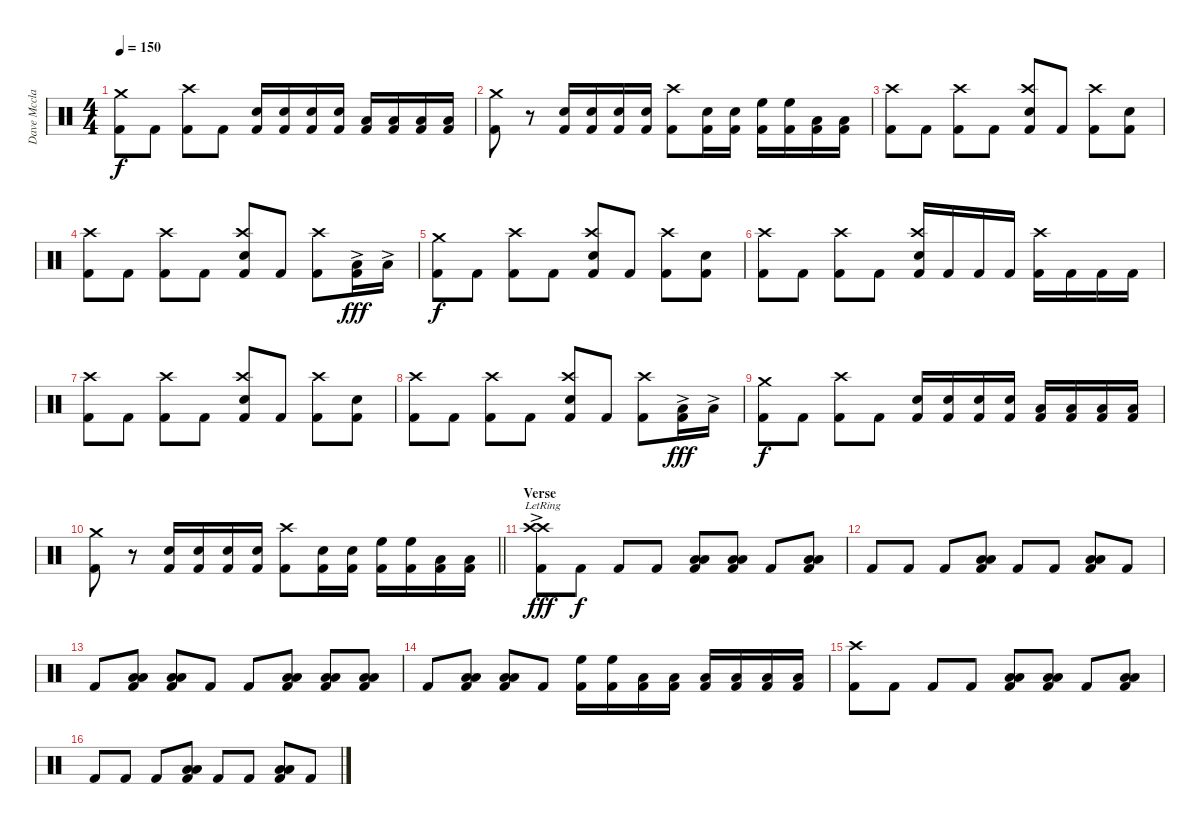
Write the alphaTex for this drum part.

\track ("Dave Mcclain" "Dave Mccla") {instrument percussion}
\staff {score}
\articulation defaults
\ts (4 4)
\tempo 150
\clef neutral
\ks c
("Crash medium (hit)" "Kick (hit) 2").8{dy f} "Kick (hit) 2".8 ("Crash high (hit)" "Kick (hit) 2").8 "Kick (hit) 2".8 ("Electric Snare (hit)" "Kick (hit) 2").16 ("Electric Snare (hit)" "Kick (hit) 2").16 ("Electric Snare (hit)" "Kick (hit) 2").16 ("Electric Snare (hit)" "Kick (hit) 2").16 ("Low Tom (hit)" "Kick (hit) 2").16 ("Low Tom (hit)" "Kick (hit) 2").16 ("Low Floor Tom (hit)" "Kick (hit) 2").16 ("Low Floor Tom (hit)" "Kick (hit) 2").16 |
("Crash medium (hit)" "Kick (hit) 2").8 r.8 ("Electric Snare (hit)" "Kick (hit) 2").16 ("Electric Snare (hit)" "Kick (hit) 2").16 ("Electric Snare (hit)" "Kick (hit) 2").16 ("Electric Snare (hit)" "Kick (hit) 2").16 ("Crash high (hit)" "Kick (hit) 2").8 ("Electric Snare (hit)" "Kick (hit) 2").16 ("Electric Snare (hit)" "Kick (hit) 2").16 ("High Floor Tom (hit)" "Kick (hit) 2").16 ("High Floor Tom (hit)" "Kick (hit) 2").16 ("Low Tom (hit)" "Kick (hit) 2").16 ("Low Floor Tom (hit)" "Kick (hit) 2").16 |
("Crash high (hit)" "Kick (hit) 2").8 "Kick (hit) 2".8 ("Crash high (hit)" "Kick (hit) 2").8 "Kick (hit) 2".8 ("Crash high (hit)" "Electric Snare (hit)" "Kick (hit) 2").8 "Kick (hit) 2".8 ("Crash high (hit)" "Kick (hit) 2").8 ("Electric Snare (hit)" "Kick (hit) 2").8 |
("Crash high (hit)" "Kick (hit) 2").8 "Kick (hit) 2".8 ("Crash high (hit)" "Kick (hit) 2").8 "Kick (hit) 2".8 ("Crash high (hit)" "Electric Snare (hit)" "Kick (hit) 2").8 "Kick (hit) 2".8 ("Crash high (hit)" "Kick (hit) 2").8 ("Low Tom (hit)"{ac} "Kick (hit) 2").16{dy fff} "Low Floor Tom (hit)"{ac}.16 |
("Crash medium (hit)" "Kick (hit) 2").8{dy f} "Kick (hit) 2".8 ("Crash high (hit)" "Kick (hit) 2").8 "Kick (hit) 2".8 ("Crash high (hit)" "Electric Snare (hit)" "Kick (hit) 2").8 "Kick (hit) 2".8 ("Crash high (hit)" "Kick (hit) 2").8 ("Electric Snare (hit)" "Kick (hit) 2").8 |
("Crash high (hit)" "Kick (hit) 2").8 "Kick (hit) 2".8 ("Crash high (hit)" "Kick (hit) 2").8 "Kick (hit) 2".8 ("Crash high (hit)" "Electric Snare (hit)" "Kick (hit) 2").16 "Kick (hit) 2".16 "Kick (hit) 2".16 "Kick (hit) 2".16 ("Crash high (hit)" "Kick (hit) 2").16 "Kick (hit) 2".16 "Kick (hit) 2".16 "Kick (hit) 2".16 |
("Crash high (hit)" "Kick (hit) 2").8 "Kick (hit) 2".8 ("Crash high (hit)" "Kick (hit) 2").8 "Kick (hit) 2".8 ("Crash high (hit)" "Electric Snare (hit)" "Kick (hit) 2").8 "Kick (hit) 2".8 ("Crash high (hit)" "Kick (hit) 2").8 ("Electric Snare (hit)" "Kick (hit) 2").8 |
("Crash high (hit)" "Kick (hit) 2").8 "Kick (hit) 2".8 ("Crash high (hit)" "Kick (hit) 2").8 "Kick (hit) 2".8 ("Crash high (hit)" "Electric Snare (hit)" "Kick (hit) 2").8 "Kick (hit) 2".8 ("Crash high (hit)" "Kick (hit) 2").8 ("Low Tom (hit)"{ac} "Kick (hit) 2").16{dy fff} "Low Floor Tom (hit)"{ac}.16 |
("Crash medium (hit)" "Kick (hit) 2").8{dy f} "Kick (hit) 2".8 ("Crash high (hit)" "Kick (hit) 2").8 "Kick (hit) 2".8 ("Electric Snare (hit)" "Kick (hit) 2").16 ("Electric Snare (hit)" "Kick (hit) 2").16 ("Electric Snare (hit)" "Kick (hit) 2").16 ("Electric Snare (hit)" "Kick (hit) 2").16 ("Low Tom (hit)" "Kick (hit) 2").16 ("Low Tom (hit)" "Kick (hit) 2").16 ("Low Floor Tom (hit)" "Kick (hit) 2").16 ("Low Floor Tom (hit)" "Kick (hit) 2").16 |
\barLineRight lightlight
("Crash medium (hit)" "Kick (hit) 2").8 r.8 ("Electric Snare (hit)" "Kick (hit) 2").16 ("Electric Snare (hit)" "Kick (hit) 2").16 ("Electric Snare (hit)" "Kick (hit) 2").16 ("Electric Snare (hit)" "Kick (hit) 2").16 ("Crash high (hit)" "Kick (hit) 2").8 ("Electric Snare (hit)" "Kick (hit) 2").16 ("Electric Snare (hit)" "Kick (hit) 2").16 ("High Floor Tom (hit)" "Kick (hit) 2").16 ("High Floor Tom (hit)" "Kick (hit) 2").16 ("Low Tom (hit)" "Kick (hit) 2").16 ("Low Floor Tom (hit)" "Kick (hit) 2").16 |
\section ("" "Verse")
("Crash high (hit)"{ac lr} "Crash high (hit)"{ac lr} "Kick (hit) 2").8{dy fff} "Kick (hit) 2".8{dy f} "Kick (hit) 2".8 "Kick (hit) 2".8 ("Low Tom (hit)" "Low Floor Tom (hit)" "Kick (hit) 2").8 ("Low Tom (hit)" "Low Floor Tom (hit)" "Kick (hit) 2").8 "Kick (hit) 2".8 ("Low Tom (hit)" "Low Floor Tom (hit)" "Kick (hit) 2").8 |
"Kick (hit) 2".8 "Kick (hit) 2".8 "Kick (hit) 2".8 ("Low Tom (hit)" "Low Floor Tom (hit)" "Kick (hit) 2").8 "Kick (hit) 2".8 "Kick (hit) 2".8 ("Low Tom (hit)" "Low Floor Tom (hit)" "Kick (hit) 2").8 "Kick (hit) 2".8 |
"Kick (hit) 2".8 ("Low Tom (hit)" "Low Floor Tom (hit)" "Kick (hit) 2").8 ("Low Tom (hit)" "Low Floor Tom (hit)" "Kick (hit) 2").8 "Kick (hit) 2".8 "Kick (hit) 2".8 ("Low Tom (hit)" "Low Floor Tom (hit)" "Kick (hit) 2").8 ("Low Tom (hit)" "Low Floor Tom (hit)" "Kick (hit) 2").8 ("Low Tom (hit)" "Low Floor Tom (hit)" "Kick (hit) 2").8 |
"Kick (hit) 2".8 ("Low Tom (hit)" "Low Floor Tom (hit)" "Kick (hit) 2").8 ("Low Tom (hit)" "Low Floor Tom (hit)" "Kick (hit) 2").8 "Kick (hit) 2".8 ("High Floor Tom (hit)" "Kick (hit) 2").16 ("High Floor Tom (hit)" "Kick (hit) 2").16 ("Low Tom (hit)" "Kick (hit) 2").16 ("Low Tom (hit)" "Kick (hit) 2").16 ("Low Floor Tom (hit)" "Kick (hit) 2").16 ("Low Floor Tom (hit)" "Kick (hit) 2").16 ("Low Floor Tom (hit)" "Kick (hit) 2").16 ("Low Floor Tom (hit)" "Kick (hit) 2").16 |
("Crash high (hit)" "Kick (hit) 2").8 "Kick (hit) 2".8 "Kick (hit) 2".8 "Kick (hit) 2".8 ("Low Tom (hit)" "Low Floor Tom (hit)" "Kick (hit) 2").8 ("Low Tom (hit)" "Low Floor Tom (hit)" "Kick (hit) 2").8 "Kick (hit) 2".8 ("Low Tom (hit)" "Low Floor Tom (hit)" "Kick (hit) 2").8 |
"Kick (hit) 2".8 "Kick (hit) 2".8 "Kick (hit) 2".8 ("Low Tom (hit)" "Low Floor Tom (hit)" "Kick (hit) 2").8 "Kick (hit) 2".8 "Kick (hit) 2".8 ("Low Tom (hit)" "Low Floor Tom (hit)" "Kick (hit) 2").8 "Kick (hit) 2".8
